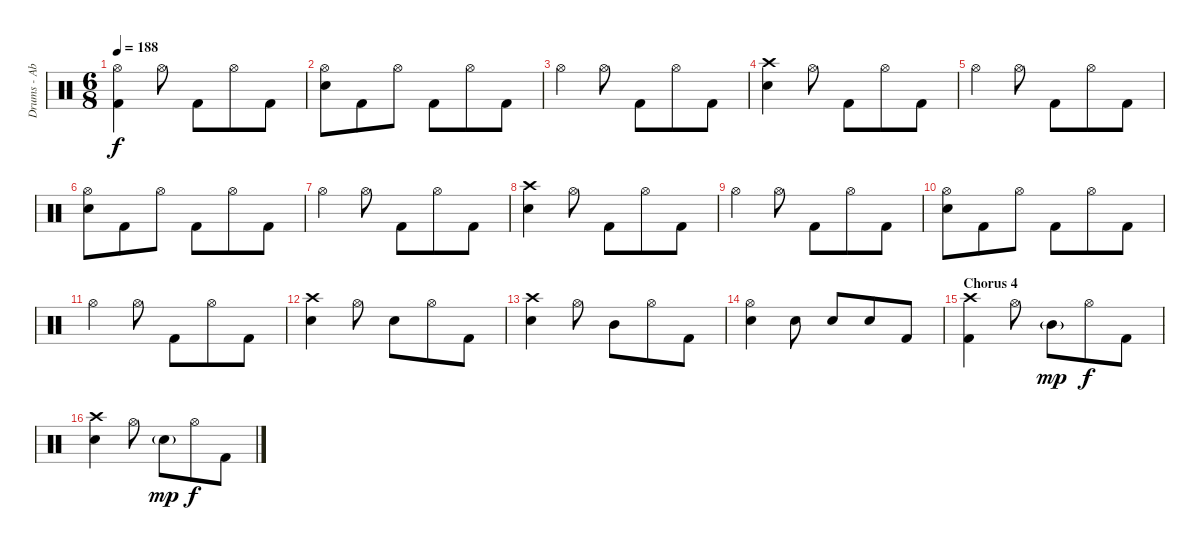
\track ("Drums - Abe Cunningham" "Drums - Ab") {instrument percussion}
\staff {score}
\articulation defaults
\ts (6 8)
\tempo 188
\clef neutral
\ks c
("Hi-Hat (open)" "Kick (hit) 2").4{dy f} "Hi-Hat (open)".8 "Kick (hit) 2".8 "Hi-Hat (open)".8 "Kick (hit) 2".8 |
("Hi-Hat (open)" "Electric Snare (hit)").8 "Kick (hit) 2".8 "Hi-Hat (open)".8 "Kick (hit) 2".8 "Hi-Hat (open)".8 "Kick (hit) 2".8 |
"Hi-Hat (open)".4 "Hi-Hat (open)".8 "Kick (hit) 2".8 "Hi-Hat (open)".8 "Kick (hit) 2".8 |
("Crash high (hit)" "Electric Snare (hit)").4 "Hi-Hat (open)".8 "Kick (hit) 2".8 "Hi-Hat (open)".8 "Kick (hit) 2".8 |
"Hi-Hat (open)".4 "Hi-Hat (open)".8 "Kick (hit) 2".8 "Hi-Hat (open)".8 "Kick (hit) 2".8 |
("Hi-Hat (open)" "Electric Snare (hit)").8 "Kick (hit) 2".8 "Hi-Hat (open)".8 "Kick (hit) 2".8 "Hi-Hat (open)".8 "Kick (hit) 2".8 |
"Hi-Hat (open)".4 "Hi-Hat (open)".8 "Kick (hit) 2".8 "Hi-Hat (open)".8 "Kick (hit) 2".8 |
("Crash high (hit)" "Electric Snare (hit)").4 "Hi-Hat (open)".8 "Kick (hit) 2".8 "Hi-Hat (open)".8 "Kick (hit) 2".8 |
"Hi-Hat (open)".4 "Hi-Hat (open)".8 "Kick (hit) 2".8 "Hi-Hat (open)".8 "Kick (hit) 2".8 |
("Hi-Hat (open)" "Electric Snare (hit)").8 "Kick (hit) 2".8 "Hi-Hat (open)".8 "Kick (hit) 2".8 "Hi-Hat (open)".8 "Kick (hit) 2".8 |
"Hi-Hat (open)".4 "Hi-Hat (open)".8 "Kick (hit) 2".8 "Hi-Hat (open)".8 "Kick (hit) 2".8 |
("Crash high (hit)" "Electric Snare (hit)").4 "Hi-Hat (open)".8 "Electric Snare (hit)".8 "Hi-Hat (open)".8 "Kick (hit) 2".8 |
("Crash high (hit)" "Electric Snare (hit)").4 "Hi-Hat (open)".8 "Mid Tom (hit)".8 "Hi-Hat (open)".8 "Kick (hit) 2".8 |
("Hi-Hat (open)" "Electric Snare (hit)").4 "Electric Snare (hit)".8 "Electric Snare (hit)".8 "Electric Snare (hit)".8 "Kick (hit) 2".8 |
\section ("" "Chorus 4")
("Crash high (hit)" "Kick (hit) 2").4 "Hi-Hat (open)".8 "Mid Tom (hit)"{g}.8{dy mp} "Hi-Hat (open)".8{dy f} "Kick (hit) 2".8 |
("Crash high (hit)" "Electric Snare (hit)").4 "Hi-Hat (open)".8 "Electric Snare (hit)"{g}.8{dy mp} "Hi-Hat (open)".8{dy f} "Kick (hit) 2".8
